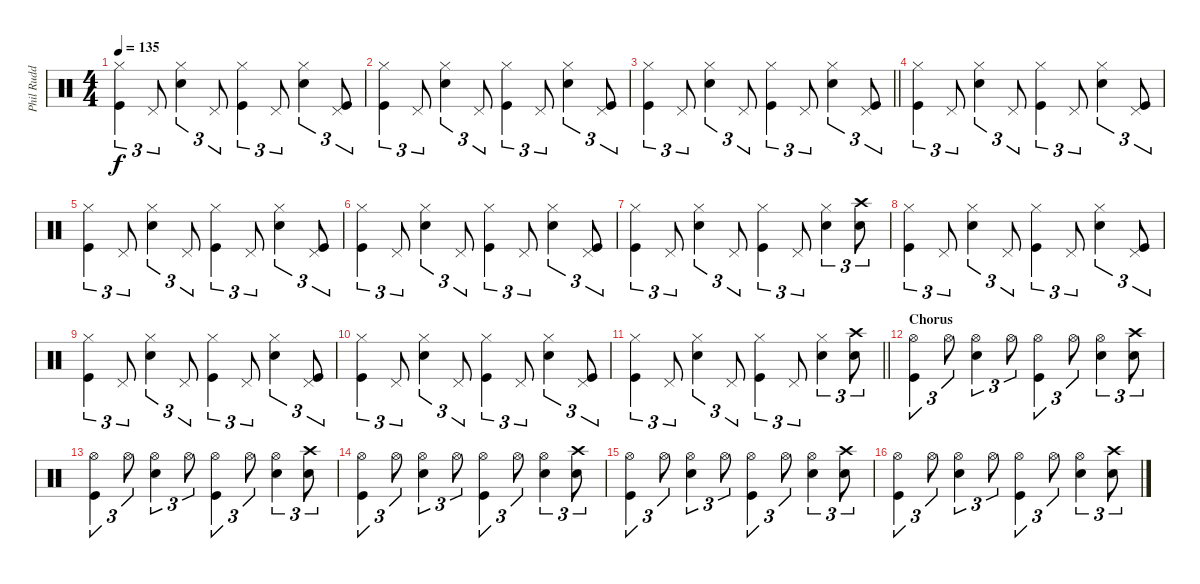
\track ("Phil Rudd" "Phil Rudd") {instrument percussion}
\staff {score}
\articulation defaults
\ts (4 4)
\tempo 135
\clef neutral
\ks c
("Hi-Hat (closed)" "Kick (hit)").4{tu (3 2) dy f} "Pedal Hi-Hat (hit)".8{tu (3 2)} ("Hi-Hat (closed)" "Snare (hit) 2").4{tu (3 2)} "Pedal Hi-Hat (hit)".8{tu (3 2)} ("Hi-Hat (closed)" "Kick (hit)").4{tu (3 2)} "Pedal Hi-Hat (hit)".8{tu (3 2)} ("Hi-Hat (closed)" "Snare (hit) 2").4{tu (3 2)} ("Pedal Hi-Hat (hit)" "Kick (hit)").8{tu (3 2)} |
("Hi-Hat (closed)" "Kick (hit)").4{tu (3 2)} "Pedal Hi-Hat (hit)".8{tu (3 2)} ("Hi-Hat (closed)" "Snare (hit) 2").4{tu (3 2)} "Pedal Hi-Hat (hit)".8{tu (3 2)} ("Hi-Hat (closed)" "Kick (hit)").4{tu (3 2)} "Pedal Hi-Hat (hit)".8{tu (3 2)} ("Hi-Hat (closed)" "Snare (hit) 2").4{tu (3 2)} ("Pedal Hi-Hat (hit)" "Kick (hit)").8{tu (3 2)} |
\barLineRight lightlight
("Hi-Hat (closed)" "Kick (hit)").4{tu (3 2)} "Pedal Hi-Hat (hit)".8{tu (3 2)} ("Hi-Hat (closed)" "Snare (hit) 2").4{tu (3 2)} "Pedal Hi-Hat (hit)".8{tu (3 2)} ("Hi-Hat (closed)" "Kick (hit)").4{tu (3 2)} "Pedal Hi-Hat (hit)".8{tu (3 2)} ("Hi-Hat (closed)" "Snare (hit) 2").4{tu (3 2)} ("Pedal Hi-Hat (hit)" "Kick (hit)").8{tu (3 2)} |
("Hi-Hat (closed)" "Kick (hit)").4{tu (3 2)} "Pedal Hi-Hat (hit)".8{tu (3 2)} ("Hi-Hat (closed)" "Snare (hit) 2").4{tu (3 2)} "Pedal Hi-Hat (hit)".8{tu (3 2)} ("Hi-Hat (closed)" "Kick (hit)").4{tu (3 2)} "Pedal Hi-Hat (hit)".8{tu (3 2)} ("Hi-Hat (closed)" "Snare (hit) 2").4{tu (3 2)} ("Pedal Hi-Hat (hit)" "Kick (hit)").8{tu (3 2)} |
("Hi-Hat (closed)" "Kick (hit)").4{tu (3 2)} "Pedal Hi-Hat (hit)".8{tu (3 2)} ("Hi-Hat (closed)" "Snare (hit) 2").4{tu (3 2)} "Pedal Hi-Hat (hit)".8{tu (3 2)} ("Hi-Hat (closed)" "Kick (hit)").4{tu (3 2)} "Pedal Hi-Hat (hit)".8{tu (3 2)} ("Hi-Hat (closed)" "Snare (hit) 2").4{tu (3 2)} ("Pedal Hi-Hat (hit)" "Kick (hit)").8{tu (3 2)} |
("Hi-Hat (closed)" "Kick (hit)").4{tu (3 2)} "Pedal Hi-Hat (hit)".8{tu (3 2)} ("Hi-Hat (closed)" "Snare (hit) 2").4{tu (3 2)} "Pedal Hi-Hat (hit)".8{tu (3 2)} ("Hi-Hat (closed)" "Kick (hit)").4{tu (3 2)} "Pedal Hi-Hat (hit)".8{tu (3 2)} ("Hi-Hat (closed)" "Snare (hit) 2").4{tu (3 2)} ("Pedal Hi-Hat (hit)" "Kick (hit)").8{tu (3 2)} |
("Hi-Hat (closed)" "Kick (hit)").4{tu (3 2)} "Pedal Hi-Hat (hit)".8{tu (3 2)} ("Hi-Hat (closed)" "Snare (hit) 2").4{tu (3 2)} "Pedal Hi-Hat (hit)".8{tu (3 2)} ("Hi-Hat (closed)" "Kick (hit)").4{tu (3 2)} "Pedal Hi-Hat (hit)".8{tu (3 2)} ("Hi-Hat (closed)" "Snare (hit) 2").4{tu (3 2)} ("Crash high (hit)" "Snare (hit) 2").8{tu (3 2)} |
("Hi-Hat (closed)" "Kick (hit)").4{tu (3 2)} "Pedal Hi-Hat (hit)".8{tu (3 2)} ("Hi-Hat (closed)" "Snare (hit) 2").4{tu (3 2)} "Pedal Hi-Hat (hit)".8{tu (3 2)} ("Hi-Hat (closed)" "Kick (hit)").4{tu (3 2)} "Pedal Hi-Hat (hit)".8{tu (3 2)} ("Hi-Hat (closed)" "Snare (hit) 2").4{tu (3 2)} ("Pedal Hi-Hat (hit)" "Kick (hit)").8{tu (3 2)} |
("Hi-Hat (closed)" "Kick (hit)").4{tu (3 2)} "Pedal Hi-Hat (hit)".8{tu (3 2)} ("Hi-Hat (closed)" "Snare (hit) 2").4{tu (3 2)} "Pedal Hi-Hat (hit)".8{tu (3 2)} ("Hi-Hat (closed)" "Kick (hit)").4{tu (3 2)} "Pedal Hi-Hat (hit)".8{tu (3 2)} ("Hi-Hat (closed)" "Snare (hit) 2").4{tu (3 2)} ("Pedal Hi-Hat (hit)" "Kick (hit)").8{tu (3 2)} |
("Hi-Hat (closed)" "Kick (hit)").4{tu (3 2)} "Pedal Hi-Hat (hit)".8{tu (3 2)} ("Hi-Hat (closed)" "Snare (hit) 2").4{tu (3 2)} "Pedal Hi-Hat (hit)".8{tu (3 2)} ("Hi-Hat (closed)" "Kick (hit)").4{tu (3 2)} "Pedal Hi-Hat (hit)".8{tu (3 2)} ("Hi-Hat (closed)" "Snare (hit) 2").4{tu (3 2)} ("Pedal Hi-Hat (hit)" "Kick (hit)").8{tu (3 2)} |
\barLineRight lightlight
("Hi-Hat (closed)" "Kick (hit)").4{tu (3 2)} "Pedal Hi-Hat (hit)".8{tu (3 2)} ("Hi-Hat (closed)" "Snare (hit) 2").4{tu (3 2)} "Pedal Hi-Hat (hit)".8{tu (3 2)} ("Hi-Hat (closed)" "Kick (hit)").4{tu (3 2)} "Pedal Hi-Hat (hit)".8{tu (3 2)} ("Hi-Hat (closed)" "Snare (hit) 2").4{tu (3 2)} ("Crash high (hit)" "Snare (hit) 2").8{tu (3 2)} |
\section ("" "Chorus")
("Hi-Hat (open)" "Kick (hit)").4{tu (3 2)} "Hi-Hat (open)".8{tu (3 2)} ("Hi-Hat (open)" "Snare (hit) 2").4{tu (3 2)} "Hi-Hat (open)".8{tu (3 2)} ("Hi-Hat (open)" "Kick (hit)").4{tu (3 2)} "Hi-Hat (open)".8{tu (3 2)} ("Hi-Hat (open)" "Snare (hit) 2").4{tu (3 2)} ("Crash high (hit)" "Snare (hit) 2").8{tu (3 2)} |
("Hi-Hat (open)" "Kick (hit)").4{tu (3 2)} "Hi-Hat (open)".8{tu (3 2)} ("Hi-Hat (open)" "Snare (hit) 2").4{tu (3 2)} "Hi-Hat (open)".8{tu (3 2)} ("Hi-Hat (open)" "Kick (hit)").4{tu (3 2)} "Hi-Hat (open)".8{tu (3 2)} ("Hi-Hat (open)" "Snare (hit) 2").4{tu (3 2)} ("Crash high (hit)" "Snare (hit) 2").8{tu (3 2)} |
("Hi-Hat (open)" "Kick (hit)").4{tu (3 2)} "Hi-Hat (open)".8{tu (3 2)} ("Hi-Hat (open)" "Snare (hit) 2").4{tu (3 2)} "Hi-Hat (open)".8{tu (3 2)} ("Hi-Hat (open)" "Kick (hit)").4{tu (3 2)} "Hi-Hat (open)".8{tu (3 2)} ("Hi-Hat (open)" "Snare (hit) 2").4{tu (3 2)} ("Crash high (hit)" "Snare (hit) 2").8{tu (3 2)} |
("Hi-Hat (open)" "Kick (hit)").4{tu (3 2)} "Hi-Hat (open)".8{tu (3 2)} ("Hi-Hat (open)" "Snare (hit) 2").4{tu (3 2)} "Hi-Hat (open)".8{tu (3 2)} ("Hi-Hat (open)" "Kick (hit)").4{tu (3 2)} "Hi-Hat (open)".8{tu (3 2)} ("Hi-Hat (open)" "Snare (hit) 2").4{tu (3 2)} ("Crash high (hit)" "Snare (hit) 2").8{tu (3 2)} |
("Hi-Hat (open)" "Kick (hit)").4{tu (3 2)} "Hi-Hat (open)".8{tu (3 2)} ("Hi-Hat (open)" "Snare (hit) 2").4{tu (3 2)} "Hi-Hat (open)".8{tu (3 2)} ("Hi-Hat (open)" "Kick (hit)").4{tu (3 2)} "Hi-Hat (open)".8{tu (3 2)} ("Hi-Hat (open)" "Snare (hit) 2").4{tu (3 2)} ("Crash high (hit)" "Snare (hit) 2").8{tu (3 2)}
